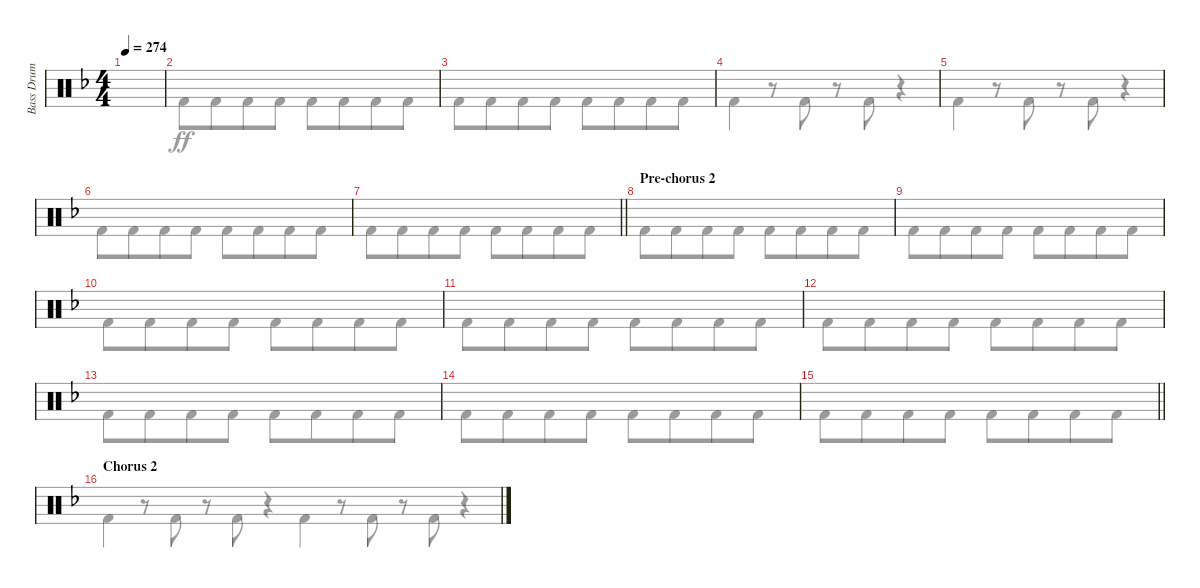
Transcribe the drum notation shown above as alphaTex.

\track ("Bass Drum" "Bass Drum") {instrument percussion}
\staff {score}
\articulation defaults
\voice
\ts (4 4)
\tempo 274
\clef neutral
\ks dminor
|
|
|
|
|
|
\barLineRight lightlight
|
\section ("" "Pre-chorus 2")
|
|
|
|
|
|
|
\barLineRight lightlight
|
\section ("" "Chorus 2")
\voice
\clef neutral
\ks dminor "Kick (hit) 2".4{dy ff}
r.8 "Kick (hit) 2".8 r.8 "Kick (hit) 2".8 r.4 |
"Kick (hit) 2".8 "Kick (hit) 2".8{beam merge} "Kick (hit) 2".8 "Kick (hit) 2".8 "Kick (hit) 2".8 "Kick (hit) 2".8{beam merge} "Kick (hit) 2".8 "Kick (hit) 2".8 |
"Kick (hit) 2".8 "Kick (hit) 2".8{beam merge} "Kick (hit) 2".8 "Kick (hit) 2".8 "Kick (hit) 2".8 "Kick (hit) 2".8{beam merge} "Kick (hit) 2".8 "Kick (hit) 2".8 |
"Kick (hit) 2".4 r.8 "Kick (hit) 2".8 r.8 "Kick (hit) 2".8 r.4 |
"Kick (hit) 2".4 r.8 "Kick (hit) 2".8 r.8 "Kick (hit) 2".8 r.4 |
"Kick (hit) 2".8 "Kick (hit) 2".8{beam merge} "Kick (hit) 2".8 "Kick (hit) 2".8 "Kick (hit) 2".8 "Kick (hit) 2".8{beam merge} "Kick (hit) 2".8 "Kick (hit) 2".8 |
\barLineRight lightlight "Kick (hit) 2".8 "Kick (hit) 2".8{beam merge} "Kick (hit) 2".8 "Kick (hit) 2".8 "Kick (hit) 2".8 "Kick (hit) 2".8{beam merge} "Kick (hit) 2".8 "Kick (hit) 2".8
|
"Kick (hit) 2".8 "Kick (hit) 2".8{beam merge} "Kick (hit) 2".8 "Kick (hit) 2".8 "Kick (hit) 2".8 "Kick (hit) 2".8{beam merge} "Kick (hit) 2".8 "Kick (hit) 2".8 |
"Kick (hit) 2".8 "Kick (hit) 2".8{beam merge} "Kick (hit) 2".8 "Kick (hit) 2".8 "Kick (hit) 2".8 "Kick (hit) 2".8{beam merge} "Kick (hit) 2".8 "Kick (hit) 2".8 |
"Kick (hit) 2".8 "Kick (hit) 2".8{beam merge} "Kick (hit) 2".8 "Kick (hit) 2".8 "Kick (hit) 2".8 "Kick (hit) 2".8{beam merge} "Kick (hit) 2".8 "Kick (hit) 2".8 |
"Kick (hit) 2".8 "Kick (hit) 2".8{beam merge} "Kick (hit) 2".8 "Kick (hit) 2".8 "Kick (hit) 2".8 "Kick (hit) 2".8{beam merge} "Kick (hit) 2".8 "Kick (hit) 2".8 |
"Kick (hit) 2".8 "Kick (hit) 2".8{beam merge} "Kick (hit) 2".8 "Kick (hit) 2".8 "Kick (hit) 2".8 "Kick (hit) 2".8{beam merge} "Kick (hit) 2".8 "Kick (hit) 2".8 |
"Kick (hit) 2".8 "Kick (hit) 2".8{beam merge} "Kick (hit) 2".8 "Kick (hit) 2".8 "Kick (hit) 2".8 "Kick (hit) 2".8{beam merge} "Kick (hit) 2".8 "Kick (hit) 2".8 |
"Kick (hit) 2".8 "Kick (hit) 2".8{beam merge} "Kick (hit) 2".8 "Kick (hit) 2".8 "Kick (hit) 2".8 "Kick (hit) 2".8{beam merge} "Kick (hit) 2".8 "Kick (hit) 2".8 |
\barLineRight lightlight "Kick (hit) 2".8 "Kick (hit) 2".8{beam merge} "Kick (hit) 2".8 "Kick (hit) 2".8 "Kick (hit) 2".8 "Kick (hit) 2".8{beam merge} "Kick (hit) 2".8 "Kick (hit) 2".8
|
"Kick (hit) 2".4 r.8 "Kick (hit) 2".8 r.8 "Kick (hit) 2".8 r.4
